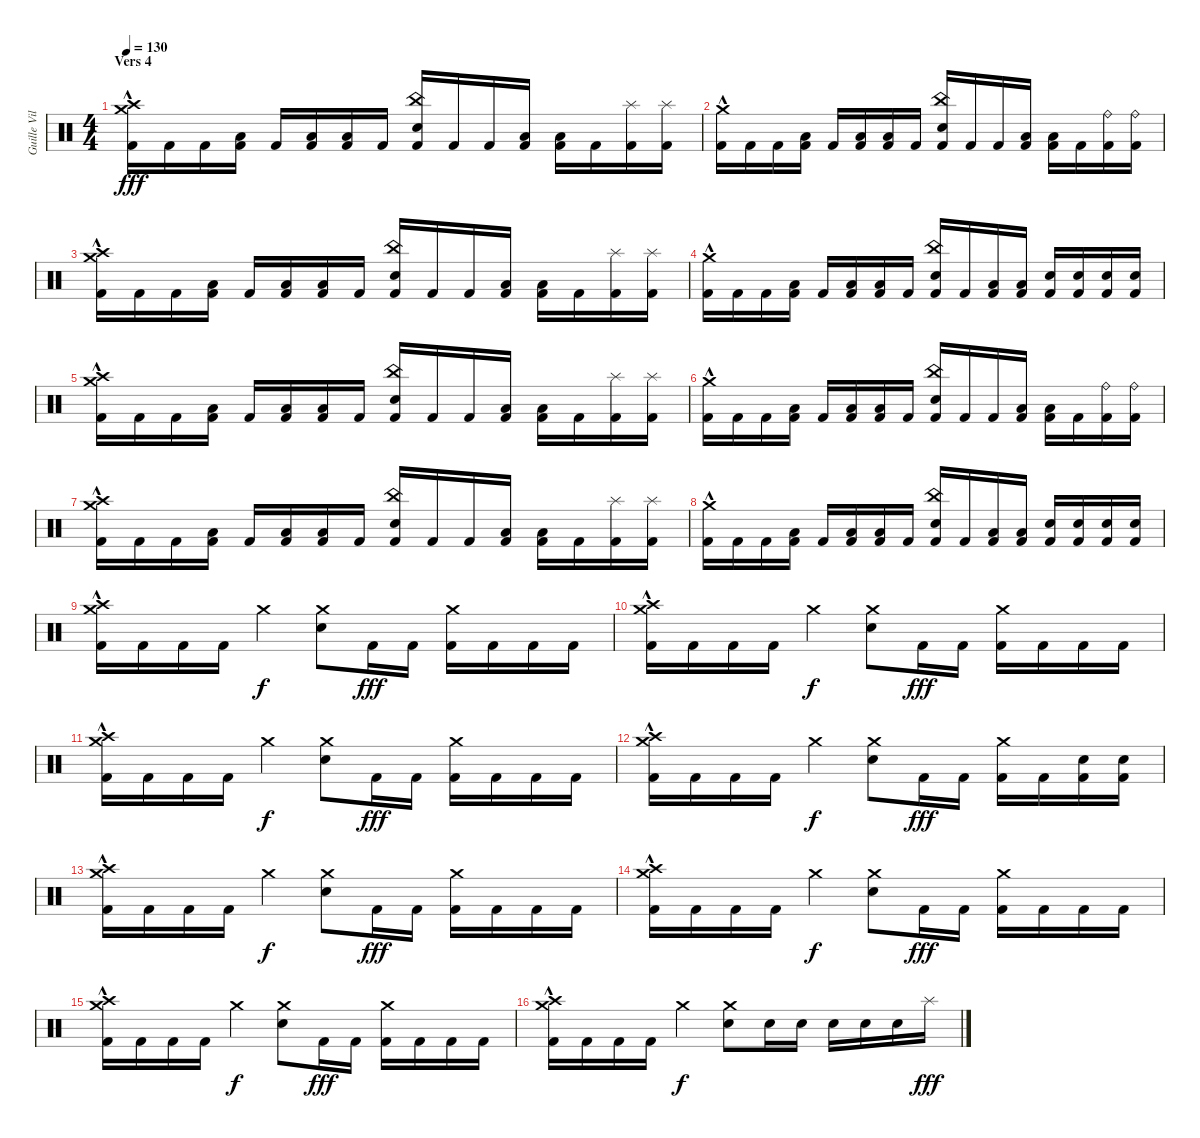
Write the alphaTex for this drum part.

\track ("Guille Vila" "Guille Vil") {instrument percussion}
\staff {score}
\articulation defaults
\ts (4 4)
\section ("" "Vers 4")
\tempo 130
\clef neutral
\ks c
("Crash high (hit)" "Crash medium (hit)" "Kick (hit) 2"{hac}).16{dy fff} "Kick (hit) 2".16 "Kick (hit) 2".16 ("Low Tom (hit)" "Kick (hit) 2").16 "Kick (hit) 2".16 ("Low Tom (hit)" "Kick (hit) 2").16 ("Low Floor Tom (hit)" "Kick (hit) 2").16 "Kick (hit) 2".16 ("China (hit)" "Snare (hit) 2" "Kick (hit) 2").16 "Kick (hit) 2".16 "Kick (hit) 2".16 ("Low Tom (hit)" "Kick (hit) 2").16 ("Low Floor Tom (hit)" "Kick (hit) 2").16 "Kick (hit) 2".16 ("Splash (hit)" "Kick (hit) 2").16 ("Splash (hit)" "Kick (hit) 2").16 |
("Crash medium (hit)" "Kick (hit) 2"{hac}).16 "Kick (hit) 2".16 "Kick (hit) 2".16 ("Low Tom (hit)" "Kick (hit) 2").16 "Kick (hit) 2".16 ("Low Tom (hit)" "Kick (hit) 2").16 ("Low Floor Tom (hit)" "Kick (hit) 2").16 "Kick (hit) 2".16 ("China (hit)" "Snare (hit) 2" "Kick (hit) 2").16 "Kick (hit) 2".16 "Kick (hit) 2".16 ("Low Tom (hit)" "Kick (hit) 2").16 ("Low Floor Tom (hit)" "Kick (hit) 2").16 "Kick (hit) 2".16 ("Ride (bell)" "Kick (hit) 2").16 ("Ride (bell)" "Kick (hit) 2").16 |
("Crash high (hit)" "Crash medium (hit)" "Kick (hit) 2"{hac}).16 "Kick (hit) 2".16 "Kick (hit) 2".16 ("Low Tom (hit)" "Kick (hit) 2").16 "Kick (hit) 2".16 ("Low Tom (hit)" "Kick (hit) 2").16 ("Low Floor Tom (hit)" "Kick (hit) 2").16 "Kick (hit) 2".16 ("China (hit)" "Snare (hit) 2" "Kick (hit) 2").16 "Kick (hit) 2".16 "Kick (hit) 2".16 ("Low Tom (hit)" "Kick (hit) 2").16 ("Low Floor Tom (hit)" "Kick (hit) 2").16 "Kick (hit) 2".16 ("Splash (hit)" "Kick (hit) 2").16 ("Splash (hit)" "Kick (hit) 2").16 |
("Crash medium (hit)" "Kick (hit) 2"{hac}).16 "Kick (hit) 2".16 "Kick (hit) 2".16 ("Low Tom (hit)" "Kick (hit) 2").16 "Kick (hit) 2".16 ("Low Tom (hit)" "Kick (hit) 2").16 ("Low Floor Tom (hit)" "Kick (hit) 2").16 "Kick (hit) 2".16 ("China (hit)" "Snare (hit) 2" "Kick (hit) 2").16 "Kick (hit) 2".16 ("Low Floor Tom (hit)" "Kick (hit) 2").16 ("Low Tom (hit)" "Kick (hit) 2").16 ("Snare (hit) 2" "Kick (hit) 2").16 ("Snare (hit) 2" "Kick (hit) 2").16 ("Snare (hit) 2" "Kick (hit) 2").16 ("Snare (hit) 2" "Kick (hit) 2").16 |
("Crash high (hit)" "Crash medium (hit)" "Kick (hit) 2"{hac}).16 "Kick (hit) 2".16 "Kick (hit) 2".16 ("Low Tom (hit)" "Kick (hit) 2").16 "Kick (hit) 2".16 ("Low Tom (hit)" "Kick (hit) 2").16 ("Low Floor Tom (hit)" "Kick (hit) 2").16 "Kick (hit) 2".16 ("China (hit)" "Snare (hit) 2" "Kick (hit) 2").16 "Kick (hit) 2".16 "Kick (hit) 2".16 ("Low Tom (hit)" "Kick (hit) 2").16 ("Low Floor Tom (hit)" "Kick (hit) 2").16 "Kick (hit) 2".16 ("Splash (hit)" "Kick (hit) 2").16 ("Splash (hit)" "Kick (hit) 2").16 |
("Crash medium (hit)" "Kick (hit) 2"{hac}).16 "Kick (hit) 2".16 "Kick (hit) 2".16 ("Low Tom (hit)" "Kick (hit) 2").16 "Kick (hit) 2".16 ("Low Tom (hit)" "Kick (hit) 2").16 ("Low Floor Tom (hit)" "Kick (hit) 2").16 "Kick (hit) 2".16 ("China (hit)" "Snare (hit) 2" "Kick (hit) 2").16 "Kick (hit) 2".16 "Kick (hit) 2".16 ("Low Tom (hit)" "Kick (hit) 2").16 ("Low Floor Tom (hit)" "Kick (hit) 2").16 "Kick (hit) 2".16 ("Ride (bell)" "Kick (hit) 2").16 ("Ride (bell)" "Kick (hit) 2").16 |
("Crash high (hit)" "Crash medium (hit)" "Kick (hit) 2"{hac}).16 "Kick (hit) 2".16 "Kick (hit) 2".16 ("Low Tom (hit)" "Kick (hit) 2").16 "Kick (hit) 2".16 ("Low Tom (hit)" "Kick (hit) 2").16 ("Low Floor Tom (hit)" "Kick (hit) 2").16 "Kick (hit) 2".16 ("China (hit)" "Snare (hit) 2" "Kick (hit) 2").16 "Kick (hit) 2".16 "Kick (hit) 2".16 ("Low Tom (hit)" "Kick (hit) 2").16 ("Low Floor Tom (hit)" "Kick (hit) 2").16 "Kick (hit) 2".16 ("Splash (hit)" "Kick (hit) 2").16 ("Splash (hit)" "Kick (hit) 2").16 |
("Crash medium (hit)" "Kick (hit) 2"{hac}).16 "Kick (hit) 2".16 "Kick (hit) 2".16 ("Low Tom (hit)" "Kick (hit) 2").16 "Kick (hit) 2".16 ("Low Tom (hit)" "Kick (hit) 2").16 ("Low Floor Tom (hit)" "Kick (hit) 2").16 "Kick (hit) 2".16 ("China (hit)" "Snare (hit) 2" "Kick (hit) 2").16 "Kick (hit) 2".16 ("Low Floor Tom (hit)" "Kick (hit) 2").16 ("Low Tom (hit)" "Kick (hit) 2").16 ("Snare (hit) 2" "Kick (hit) 2").16 ("Snare (hit) 2" "Kick (hit) 2").16 ("Snare (hit) 2" "Kick (hit) 2").16 ("Snare (hit) 2" "Kick (hit) 2").16 |
("Crash medium (hit)" "Crash high (hit)" "Kick (hit) 2"{hac}).16 "Kick (hit) 2".16 "Kick (hit) 2".16 "Kick (hit) 2".16 "Crash medium (hit)".4{dy f} ("Crash medium (hit)" "Snare (hit) 2").8 "Kick (hit) 2".16{dy fff} "Kick (hit) 2".16 ("Crash medium (hit)" "Kick (hit) 2").16 "Kick (hit) 2".16 "Kick (hit) 2".16 "Kick (hit) 2".16 |
("Crash medium (hit)" "Crash high (hit)" "Kick (hit) 2"{hac}).16 "Kick (hit) 2".16 "Kick (hit) 2".16 "Kick (hit) 2".16 "Crash medium (hit)".4{dy f} ("Crash medium (hit)" "Snare (hit) 2").8 "Kick (hit) 2".16{dy fff} "Kick (hit) 2".16 ("Crash medium (hit)" "Kick (hit) 2").16 "Kick (hit) 2".16 "Kick (hit) 2".16 "Kick (hit) 2".16 |
("Crash medium (hit)" "Crash high (hit)" "Kick (hit) 2"{hac}).16 "Kick (hit) 2".16 "Kick (hit) 2".16 "Kick (hit) 2".16 "Crash medium (hit)".4{dy f} ("Crash medium (hit)" "Snare (hit) 2").8 "Kick (hit) 2".16{dy fff} "Kick (hit) 2".16 ("Crash medium (hit)" "Kick (hit) 2").16 "Kick (hit) 2".16 "Kick (hit) 2".16 "Kick (hit) 2".16 |
("Crash medium (hit)" "Crash high (hit)" "Kick (hit) 2"{hac}).16 "Kick (hit) 2".16 "Kick (hit) 2".16 "Kick (hit) 2".16 "Crash medium (hit)".4{dy f} ("Crash medium (hit)" "Snare (hit) 2").8 "Kick (hit) 2".16{dy fff} "Kick (hit) 2".16 ("Crash medium (hit)" "Kick (hit) 2").16 "Kick (hit) 2".16 ("Snare (hit) 2" "Kick (hit) 2").16 ("Snare (hit) 2" "Kick (hit) 2").16 |
("Crash medium (hit)" "Crash high (hit)" "Kick (hit) 2"{hac}).16 "Kick (hit) 2".16 "Kick (hit) 2".16 "Kick (hit) 2".16 "Crash medium (hit)".4{dy f} ("Crash medium (hit)" "Snare (hit) 2").8 "Kick (hit) 2".16{dy fff} "Kick (hit) 2".16 ("Crash medium (hit)" "Kick (hit) 2").16 "Kick (hit) 2".16 "Kick (hit) 2".16 "Kick (hit) 2".16 |
("Crash medium (hit)" "Crash high (hit)" "Kick (hit) 2"{hac}).16 "Kick (hit) 2".16 "Kick (hit) 2".16 "Kick (hit) 2".16 "Crash medium (hit)".4{dy f} ("Crash medium (hit)" "Snare (hit) 2").8 "Kick (hit) 2".16{dy fff} "Kick (hit) 2".16 ("Crash medium (hit)" "Kick (hit) 2").16 "Kick (hit) 2".16 "Kick (hit) 2".16 "Kick (hit) 2".16 |
("Crash medium (hit)" "Crash high (hit)" "Kick (hit) 2"{hac}).16 "Kick (hit) 2".16 "Kick (hit) 2".16 "Kick (hit) 2".16 "Crash medium (hit)".4{dy f} ("Crash medium (hit)" "Snare (hit) 2").8 "Kick (hit) 2".16{dy fff} "Kick (hit) 2".16 ("Crash medium (hit)" "Kick (hit) 2").16 "Kick (hit) 2".16 "Kick (hit) 2".16 "Kick (hit) 2".16 |
("Crash medium (hit)" "Crash high (hit)" "Kick (hit) 2"{hac}).16 "Kick (hit) 2".16 "Kick (hit) 2".16 "Kick (hit) 2".16 "Crash medium (hit)".4{dy f} ("Crash medium (hit)" "Snare (hit) 2").8 "Snare (hit) 2".16 "Snare (hit) 2".16 "Snare (hit) 2".16 "Snare (hit) 2".16 "Snare (hit) 2".16 "Splash (hit)".16{dy fff}
